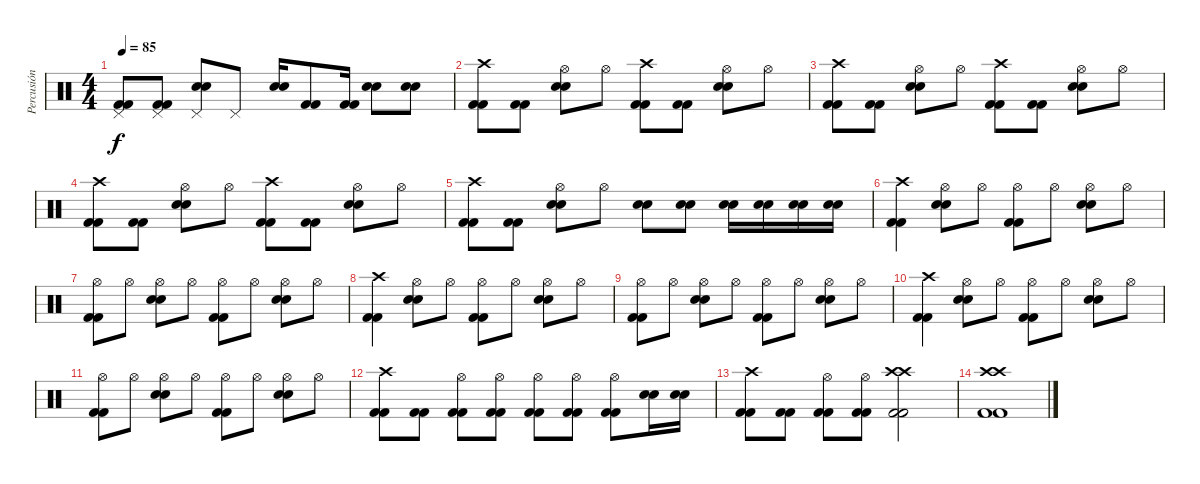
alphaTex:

\track ("Percusión" "Percusión") {instrument percussion}
\staff {score}
\articulation defaults
\ts (4 4)
\tempo 85
\clef neutral
\ks c
("Kick (hit) 2" "Kick (hit) 2" "Pedal Hi-Hat (hit)").8{dy f} ("Kick (hit) 2" "Kick (hit) 2" "Pedal Hi-Hat (hit)").8 ("Electric Snare (hit)" "Electric Snare (hit)" "Pedal Hi-Hat (hit)").8 "Pedal Hi-Hat (hit)".8 ("Electric Snare (hit)" "Electric Snare (hit)").16 ("Kick (hit) 2" "Kick (hit) 2").8 ("Kick (hit) 2" "Kick (hit) 2").16 ("Electric Snare (hit)" "Electric Snare (hit)").8 ("Electric Snare (hit)" "Electric Snare (hit)").8 |
("Crash high (hit)" "Kick (hit) 2" "Kick (hit) 2").8 ("Kick (hit) 2" "Kick (hit) 2").8 ("Hi-Hat (open)" "Electric Snare (hit)" "Electric Snare (hit)").8 "Hi-Hat (open)".8 ("Crash high (hit)" "Kick (hit) 2" "Kick (hit) 2").8 ("Kick (hit) 2" "Kick (hit) 2").8 ("Hi-Hat (open)" "Electric Snare (hit)" "Electric Snare (hit)").8 "Hi-Hat (open)".8 |
("Crash high (hit)" "Kick (hit) 2" "Kick (hit) 2").8 ("Kick (hit) 2" "Kick (hit) 2").8 ("Hi-Hat (open)" "Electric Snare (hit)" "Electric Snare (hit)").8 "Hi-Hat (open)".8 ("Crash high (hit)" "Kick (hit) 2" "Kick (hit) 2").8 ("Kick (hit) 2" "Kick (hit) 2").8 ("Hi-Hat (open)" "Electric Snare (hit)" "Electric Snare (hit)").8 "Hi-Hat (open)".8 |
("Crash high (hit)" "Kick (hit) 2" "Kick (hit) 2").8 ("Kick (hit) 2" "Kick (hit) 2").8 ("Hi-Hat (open)" "Electric Snare (hit)" "Electric Snare (hit)").8 "Hi-Hat (open)".8 ("Crash high (hit)" "Kick (hit) 2" "Kick (hit) 2").8 ("Kick (hit) 2" "Kick (hit) 2").8 ("Hi-Hat (open)" "Electric Snare (hit)" "Electric Snare (hit)").8 "Hi-Hat (open)".8 |
("Crash high (hit)" "Kick (hit) 2" "Kick (hit) 2").8 ("Kick (hit) 2" "Kick (hit) 2").8 ("Hi-Hat (open)" "Electric Snare (hit)" "Electric Snare (hit)").8 "Hi-Hat (open)".8 ("Electric Snare (hit)" "Electric Snare (hit)").8 ("Electric Snare (hit)" "Electric Snare (hit)").8 ("Electric Snare (hit)" "Electric Snare (hit)").16 ("Electric Snare (hit)" "Electric Snare (hit)").16 ("Electric Snare (hit)" "Electric Snare (hit)").16 ("Electric Snare (hit)" "Electric Snare (hit)").16 |
("Crash high (hit)" "Kick (hit) 2" "Kick (hit) 2").4 ("Hi-Hat (open)" "Electric Snare (hit)" "Electric Snare (hit)").8 "Hi-Hat (open)".8 ("Hi-Hat (open)" "Kick (hit) 2" "Kick (hit) 2").8 "Hi-Hat (open)".8 ("Hi-Hat (open)" "Electric Snare (hit)" "Electric Snare (hit)").8 "Hi-Hat (open)".8 |
("Hi-Hat (open)" "Kick (hit) 2" "Kick (hit) 2").8 "Hi-Hat (open)".8 ("Hi-Hat (open)" "Electric Snare (hit)" "Electric Snare (hit)").8 "Hi-Hat (open)".8 ("Hi-Hat (open)" "Kick (hit) 2" "Kick (hit) 2").8 "Hi-Hat (open)".8 ("Hi-Hat (open)" "Electric Snare (hit)" "Electric Snare (hit)").8 "Hi-Hat (open)".8 |
("Crash high (hit)" "Kick (hit) 2" "Kick (hit) 2").4 ("Hi-Hat (open)" "Electric Snare (hit)" "Electric Snare (hit)").8 "Hi-Hat (open)".8 ("Hi-Hat (open)" "Kick (hit) 2" "Kick (hit) 2").8 "Hi-Hat (open)".8 ("Hi-Hat (open)" "Electric Snare (hit)" "Electric Snare (hit)").8 "Hi-Hat (open)".8 |
("Hi-Hat (open)" "Kick (hit) 2" "Kick (hit) 2").8 "Hi-Hat (open)".8 ("Hi-Hat (open)" "Electric Snare (hit)" "Electric Snare (hit)").8 "Hi-Hat (open)".8 ("Hi-Hat (open)" "Kick (hit) 2" "Kick (hit) 2").8 "Hi-Hat (open)".8 ("Hi-Hat (open)" "Electric Snare (hit)" "Electric Snare (hit)").8 "Hi-Hat (open)".8 |
("Crash high (hit)" "Kick (hit) 2" "Kick (hit) 2").4 ("Hi-Hat (open)" "Electric Snare (hit)" "Electric Snare (hit)").8 "Hi-Hat (open)".8 ("Hi-Hat (open)" "Kick (hit) 2" "Kick (hit) 2").8 "Hi-Hat (open)".8 ("Hi-Hat (open)" "Electric Snare (hit)" "Electric Snare (hit)").8 "Hi-Hat (open)".8 |
("Hi-Hat (open)" "Kick (hit) 2" "Kick (hit) 2").8 "Hi-Hat (open)".8 ("Hi-Hat (open)" "Electric Snare (hit)" "Electric Snare (hit)").8 "Hi-Hat (open)".8 ("Hi-Hat (open)" "Kick (hit) 2" "Kick (hit) 2").8 "Hi-Hat (open)".8 ("Hi-Hat (open)" "Electric Snare (hit)" "Electric Snare (hit)").8 "Hi-Hat (open)".8 |
("Crash high (hit)" "Kick (hit) 2" "Kick (hit) 2").8 ("Kick (hit) 2" "Kick (hit) 2").8 ("Hi-Hat (open)" "Kick (hit) 2" "Kick (hit) 2").8 ("Hi-Hat (open)" "Kick (hit) 2" "Kick (hit) 2").8 ("Hi-Hat (open)" "Kick (hit) 2" "Kick (hit) 2").8 ("Hi-Hat (open)" "Kick (hit) 2" "Kick (hit) 2").8 ("Hi-Hat (open)" "Kick (hit) 2" "Kick (hit) 2").8 ("Electric Snare (hit)" "Electric Snare (hit)").16 ("Electric Snare (hit)" "Electric Snare (hit)").16 |
("Crash high (hit)" "Kick (hit) 2" "Kick (hit) 2").8 ("Kick (hit) 2" "Kick (hit) 2").8 ("Hi-Hat (open)" "Kick (hit) 2" "Kick (hit) 2").8 ("Hi-Hat (open)" "Kick (hit) 2" "Kick (hit) 2").8 ("Crash high (hit)" "Crash high (hit)" "Kick (hit) 2" "Kick (hit) 2").2 |
("Kick (hit) 2" "Kick (hit) 2" "Crash high (hit)" "Crash high (hit)").1
